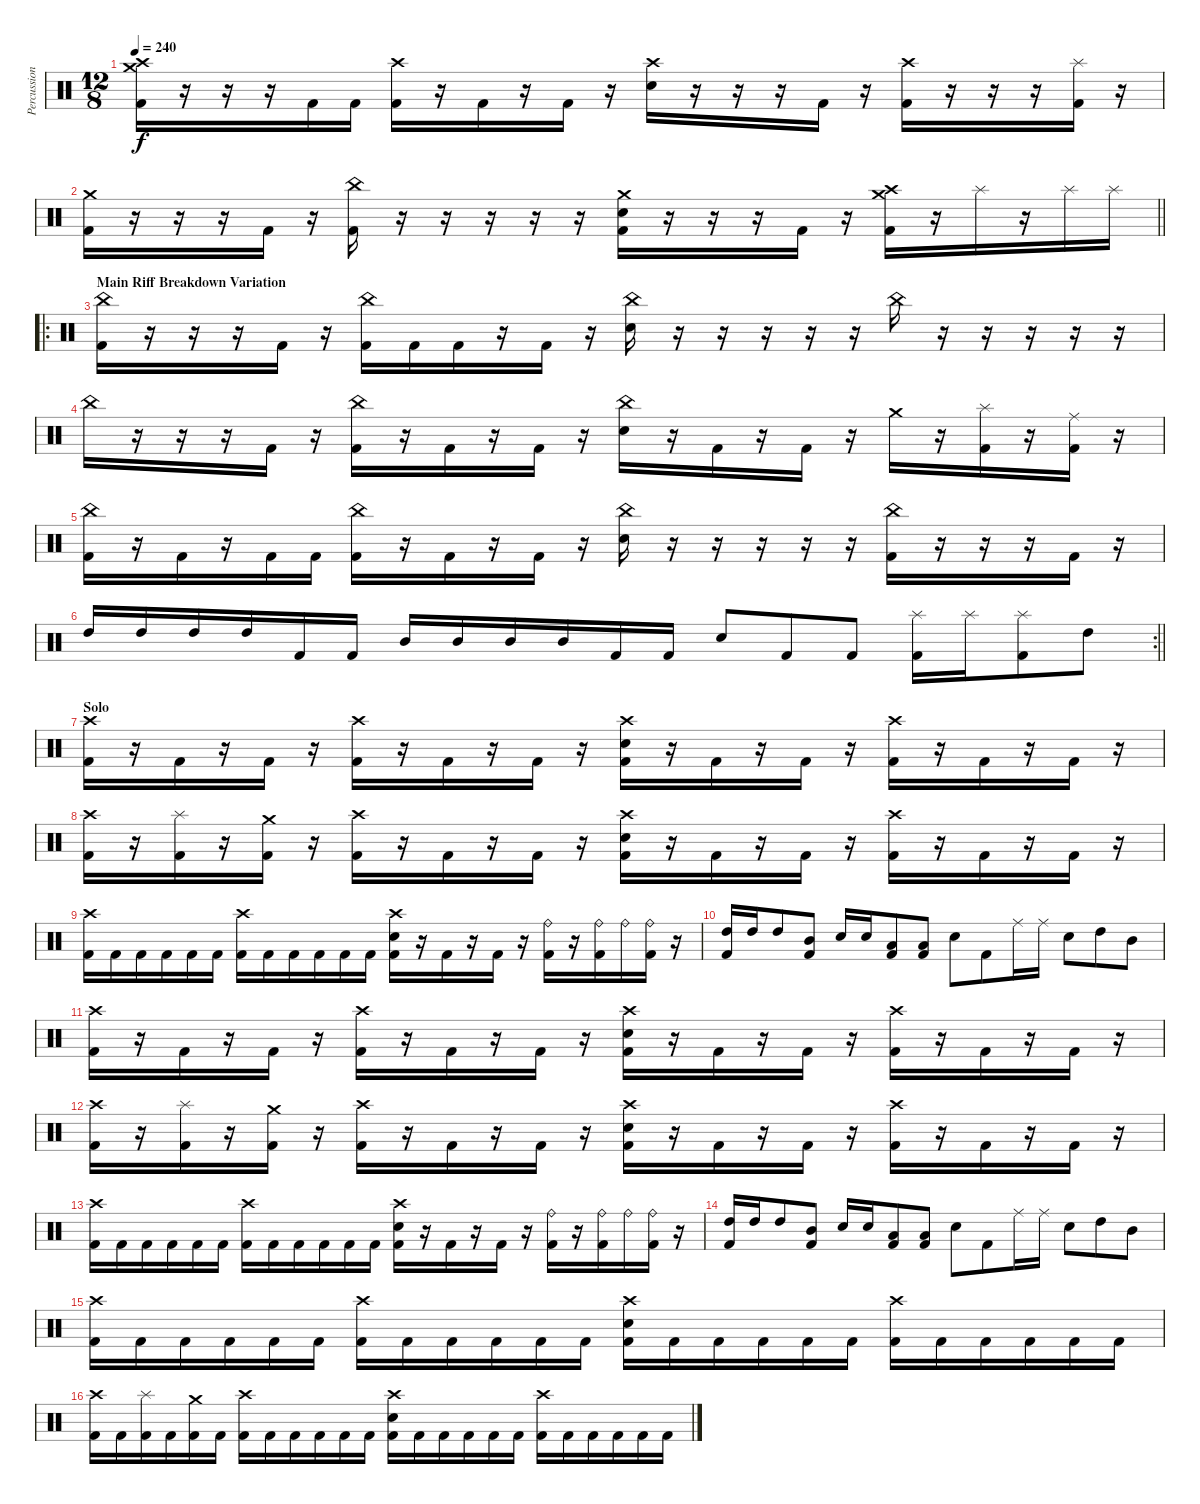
\track ("Percussion" "Percussion") {instrument percussion}
\staff {score}
\articulation defaults
\ts (12 8)
\tempo 240
\clef neutral
\ks c
("Crash medium (hit)" "Crash high (hit)" "Kick (hit) 2").16{dy f} r.16 r.16 r.16 "Kick (hit) 2".16 "Kick (hit) 2".16 ("Crash high (hit)" "Kick (hit) 2").16 r.16 "Kick (hit) 2".16 r.16 "Kick (hit) 2".16 r.16 ("Crash high (hit)" "Electric Snare (hit)").16 r.16 r.16 r.16 "Kick (hit) 2".16 r.16 ("Crash high (hit)" "Kick (hit) 2").16 r.16 r.16 r.16 ("Splash (hit)" "Kick (hit) 2").16 r.16 |
\barLineRight lightlight
("Crash medium (hit)" "Kick (hit) 2").16 r.16 r.16 r.16 "Kick (hit) 2".16 r.16 ("China (hit)" "Kick (hit) 2").16 r.16 r.16 r.16 r.16 r.16 ("Crash medium (hit)" "Electric Snare (hit)" "Kick (hit) 2").16 r.16 r.16 r.16 "Kick (hit) 2".16 r.16 ("Crash medium (hit)" "Crash high (hit)" "Kick (hit) 2").16 r.16 "Splash (hit)".16 r.16 "Splash (hit)".16 "Splash (hit)".16 |
\ro
\section ("" "Main Riff Breakdown Variation")
("China (hit)" "Kick (hit) 2").16 r.16 r.16 r.16 "Kick (hit) 2".16 r.16 ("China (hit)" "Kick (hit) 2").16 "Kick (hit) 2".16 "Kick (hit) 2".16 r.16 "Kick (hit) 2".16 r.16 ("China (hit)" "Electric Snare (hit)").16 r.16 r.16 r.16 r.16 r.16 "China (hit)".16 r.16 r.16 r.16 r.16 r.16 |
"China (hit)".16 r.16 r.16 r.16 "Kick (hit) 2".16 r.16 ("China (hit)" "Kick (hit) 2").16 r.16 "Kick (hit) 2".16 r.16 "Kick (hit) 2".16 r.16 ("China (hit)" "Electric Snare (hit)").16 r.16 "Kick (hit) 2".16 r.16 "Kick (hit) 2".16 r.16 "Crash medium (hit)".16 r.16 ("Splash (hit)" "Kick (hit) 2").16 r.16 ("Ride (middle)" "Kick (hit) 2").16 r.16 |
("China (hit)" "Kick (hit) 2").16 r.16 "Kick (hit) 2".16 r.16 "Kick (hit) 2".16 "Kick (hit) 2".16 ("China (hit)" "Kick (hit) 2").16 r.16 "Kick (hit) 2".16 r.16 "Kick (hit) 2".16 r.16 ("China (hit)" "Electric Snare (hit)").16 r.16 r.16 r.16 r.16 r.16 ("China (hit)" "Kick (hit) 2").16 r.16 r.16 r.16 "Kick (hit) 2".16 r.16 |
\rc 2
\barLineRight lightlight "High Tom (hit)".16 "High Tom (hit)".16 "High Tom (hit)".16 "High Tom (hit)".16 "Kick (hit) 2".16 "Kick (hit) 2".16 "Mid Tom (hit)".16 "Mid Tom (hit)".16 "Mid Tom (hit)".16 "Mid Tom (hit)".16 "Kick (hit) 2".16 "Kick (hit) 2".16 "Electric Snare (hit)".8 "Kick (hit) 2".8 "Kick (hit) 2".8
("Splash (hit)" "Kick (hit) 2").16 "Splash (hit)".16 ("Splash (hit)" "Kick (hit) 2").8 "High Tom (hit)".8 |
\section ("" "Solo")
("Crash high (hit)" "Kick (hit) 2").16 r.16 "Kick (hit) 2".16 r.16 "Kick (hit) 2".16 r.16 ("Crash high (hit)" "Kick (hit) 2").16 r.16 "Kick (hit) 2".16 r.16 "Kick (hit) 2".16 r.16 ("Crash high (hit)" "Electric Snare (hit)" "Kick (hit) 2").16 r.16 "Kick (hit) 2".16 r.16 "Kick (hit) 2".16 r.16 ("Crash high (hit)" "Kick (hit) 2").16 r.16 "Kick (hit) 2".16 r.16 "Kick (hit) 2".16 r.16 |
("Crash high (hit)" "Kick (hit) 2").16 r.16 ("Splash (hit)" "Kick (hit) 2").16 r.16 ("Crash medium (hit)" "Kick (hit) 2").16 r.16 ("Crash high (hit)" "Kick (hit) 2").16 r.16 "Kick (hit) 2".16 r.16 "Kick (hit) 2".16 r.16 ("Crash high (hit)" "Electric Snare (hit)" "Kick (hit) 2").16 r.16 "Kick (hit) 2".16 r.16 "Kick (hit) 2".16 r.16 ("Crash high (hit)" "Kick (hit) 2").16 r.16 "Kick (hit) 2".16 r.16 "Kick (hit) 2".16 r.16 |
("Crash high (hit)" "Kick (hit) 2").16 "Kick (hit) 2".16 "Kick (hit) 2".16 "Kick (hit) 2".16 "Kick (hit) 2".16 "Kick (hit) 2".16 ("Crash high (hit)" "Kick (hit) 2").16 "Kick (hit) 2".16 "Kick (hit) 2".16 "Kick (hit) 2".16 "Kick (hit) 2".16 "Kick (hit) 2".16 ("Crash high (hit)" "Electric Snare (hit)" "Kick (hit) 2").16 r.16 "Kick (hit) 2".16 r.16 "Kick (hit) 2".16 r.16 ("Ride (bell)" "Kick (hit) 2").16 r.16 ("Ride (bell)" "Kick (hit) 2").16 "Ride (bell)".16 ("Ride (bell)" "Kick (hit) 2").16 r.16 |
("High Tom (hit)" "Kick (hit) 2").16 "High Tom (hit)".16 "High Tom (hit)".8 ("Mid Tom (hit)" "Kick (hit) 2").8 "Electric Snare (hit)".16 "Electric Snare (hit)".16 ("Low Tom (hit)" "Kick (hit) 2").8 ("Low Tom (hit)" "Kick (hit) 2").8 "Electric Snare (hit)".8 "Kick (hit) 2".8 "Ride (middle)".16 "Ride (middle)".16 "Electric Snare (hit)".8 "High Tom (hit)".8 "Mid Tom (hit)".8 |
("Crash high (hit)" "Kick (hit) 2").16 r.16 "Kick (hit) 2".16 r.16 "Kick (hit) 2".16 r.16 ("Crash high (hit)" "Kick (hit) 2").16 r.16 "Kick (hit) 2".16 r.16 "Kick (hit) 2".16 r.16 ("Crash high (hit)" "Electric Snare (hit)" "Kick (hit) 2").16 r.16 "Kick (hit) 2".16 r.16 "Kick (hit) 2".16 r.16 ("Crash high (hit)" "Kick (hit) 2").16 r.16 "Kick (hit) 2".16 r.16 "Kick (hit) 2".16 r.16 |
("Crash high (hit)" "Kick (hit) 2").16 r.16 ("Splash (hit)" "Kick (hit) 2").16 r.16 ("Crash medium (hit)" "Kick (hit) 2").16 r.16 ("Crash high (hit)" "Kick (hit) 2").16 r.16 "Kick (hit) 2".16 r.16 "Kick (hit) 2".16 r.16 ("Crash high (hit)" "Electric Snare (hit)" "Kick (hit) 2").16 r.16 "Kick (hit) 2".16 r.16 "Kick (hit) 2".16 r.16 ("Crash high (hit)" "Kick (hit) 2").16 r.16 "Kick (hit) 2".16 r.16 "Kick (hit) 2".16 r.16 |
("Crash high (hit)" "Kick (hit) 2").16 "Kick (hit) 2".16 "Kick (hit) 2".16 "Kick (hit) 2".16 "Kick (hit) 2".16 "Kick (hit) 2".16 ("Crash high (hit)" "Kick (hit) 2").16 "Kick (hit) 2".16 "Kick (hit) 2".16 "Kick (hit) 2".16 "Kick (hit) 2".16 "Kick (hit) 2".16 ("Crash high (hit)" "Electric Snare (hit)" "Kick (hit) 2").16 r.16 "Kick (hit) 2".16 r.16 "Kick (hit) 2".16 r.16 ("Ride (bell)" "Kick (hit) 2").16 r.16 ("Ride (bell)" "Kick (hit) 2").16 "Ride (bell)".16 ("Ride (bell)" "Kick (hit) 2").16 r.16 |
("High Tom (hit)" "Kick (hit) 2").16 "High Tom (hit)".16 "High Tom (hit)".8 ("Mid Tom (hit)" "Kick (hit) 2").8 "Electric Snare (hit)".16 "Electric Snare (hit)".16 ("Low Tom (hit)" "Kick (hit) 2").8 ("Low Tom (hit)" "Kick (hit) 2").8 "Electric Snare (hit)".8 "Kick (hit) 2".8 "Ride (middle)".16 "Ride (middle)".16 "Electric Snare (hit)".8 "High Tom (hit)".8 "Mid Tom (hit)".8 |
("Crash high (hit)" "Kick (hit) 2").16 "Kick (hit) 2".16 "Kick (hit) 2".16 "Kick (hit) 2".16 "Kick (hit) 2".16 "Kick (hit) 2".16 ("Crash high (hit)" "Kick (hit) 2").16 "Kick (hit) 2".16 "Kick (hit) 2".16 "Kick (hit) 2".16 "Kick (hit) 2".16 "Kick (hit) 2".16 ("Crash high (hit)" "Electric Snare (hit)" "Kick (hit) 2").16 "Kick (hit) 2".16 "Kick (hit) 2".16 "Kick (hit) 2".16 "Kick (hit) 2".16 "Kick (hit) 2".16 ("Crash high (hit)" "Kick (hit) 2").16 "Kick (hit) 2".16 "Kick (hit) 2".16 "Kick (hit) 2".16 "Kick (hit) 2".16 "Kick (hit) 2".16 |
("Crash high (hit)" "Kick (hit) 2").16 "Kick (hit) 2".16 ("Splash (hit)" "Kick (hit) 2").16 "Kick (hit) 2".16 ("Crash medium (hit)" "Kick (hit) 2").16 "Kick (hit) 2".16 ("Crash high (hit)" "Kick (hit) 2").16 "Kick (hit) 2".16 "Kick (hit) 2".16 "Kick (hit) 2".16 "Kick (hit) 2".16 "Kick (hit) 2".16 ("Crash high (hit)" "Electric Snare (hit)" "Kick (hit) 2").16 "Kick (hit) 2".16 "Kick (hit) 2".16 "Kick (hit) 2".16 "Kick (hit) 2".16 "Kick (hit) 2".16 ("Crash high (hit)" "Kick (hit) 2").16 "Kick (hit) 2".16 "Kick (hit) 2".16 "Kick (hit) 2".16 "Kick (hit) 2".16 "Kick (hit) 2".16
